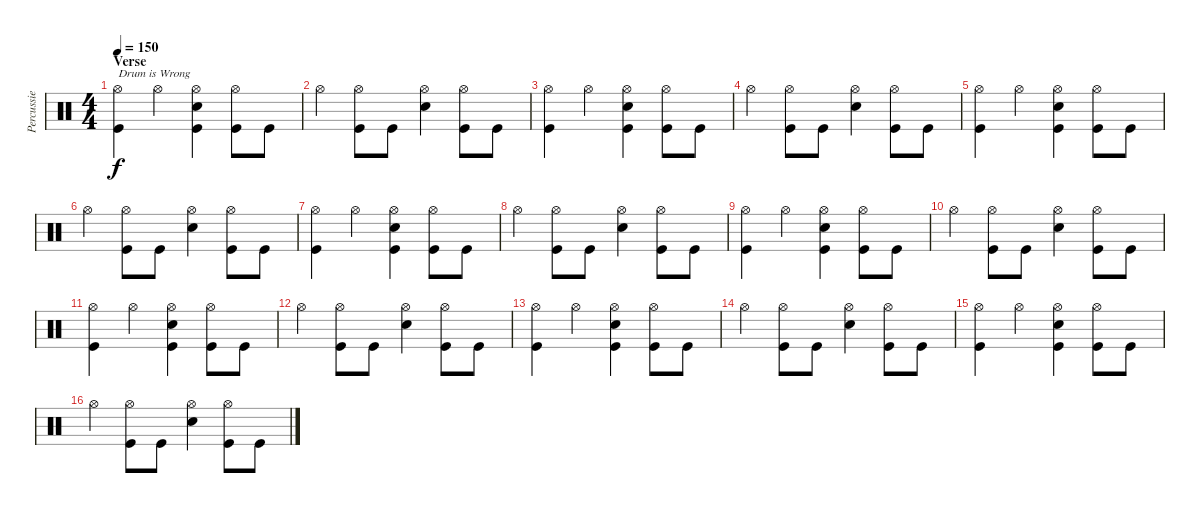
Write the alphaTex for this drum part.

\track ("Percussie" "Percussie") {instrument percussion}
\staff {score}
\articulation defaults
\ts (4 4)
\section ("" "Verse")
\tempo 150
\clef neutral
\ks c
("Hi-Hat (open)" "Kick (hit)").4{txt "Drum is Wrong" dy f} "Hi-Hat (open)".4 ("Hi-Hat (open)" "Snare (hit) 2" "Kick (hit)").4 ("Hi-Hat (open)" "Kick (hit)").8 "Kick (hit)".8 |
"Hi-Hat (open)".4 ("Hi-Hat (open)" "Kick (hit)").8 "Kick (hit)".8 ("Hi-Hat (open)" "Snare (hit) 2").4 ("Hi-Hat (open)" "Kick (hit)").8 "Kick (hit)".8 |
("Hi-Hat (open)" "Kick (hit)").4 "Hi-Hat (open)".4 ("Hi-Hat (open)" "Snare (hit) 2" "Kick (hit)").4 ("Hi-Hat (open)" "Kick (hit)").8 "Kick (hit)".8 |
"Hi-Hat (open)".4 ("Hi-Hat (open)" "Kick (hit)").8 "Kick (hit)".8 ("Hi-Hat (open)" "Snare (hit) 2").4 ("Hi-Hat (open)" "Kick (hit)").8 "Kick (hit)".8 |
("Hi-Hat (open)" "Kick (hit)").4 "Hi-Hat (open)".4 ("Hi-Hat (open)" "Snare (hit) 2" "Kick (hit)").4 ("Hi-Hat (open)" "Kick (hit)").8 "Kick (hit)".8 |
"Hi-Hat (open)".4 ("Hi-Hat (open)" "Kick (hit)").8 "Kick (hit)".8 ("Hi-Hat (open)" "Snare (hit) 2").4 ("Hi-Hat (open)" "Kick (hit)").8 "Kick (hit)".8 |
("Hi-Hat (open)" "Kick (hit)").4 "Hi-Hat (open)".4 ("Hi-Hat (open)" "Snare (hit) 2" "Kick (hit)").4 ("Hi-Hat (open)" "Kick (hit)").8 "Kick (hit)".8 |
"Hi-Hat (open)".4 ("Hi-Hat (open)" "Kick (hit)").8 "Kick (hit)".8 ("Hi-Hat (open)" "Snare (hit) 2").4 ("Hi-Hat (open)" "Kick (hit)").8 "Kick (hit)".8 |
("Hi-Hat (open)" "Kick (hit)").4 "Hi-Hat (open)".4 ("Hi-Hat (open)" "Snare (hit) 2" "Kick (hit)").4 ("Hi-Hat (open)" "Kick (hit)").8 "Kick (hit)".8 |
"Hi-Hat (open)".4 ("Hi-Hat (open)" "Kick (hit)").8 "Kick (hit)".8 ("Hi-Hat (open)" "Snare (hit) 2").4 ("Hi-Hat (open)" "Kick (hit)").8 "Kick (hit)".8 |
("Hi-Hat (open)" "Kick (hit)").4 "Hi-Hat (open)".4 ("Hi-Hat (open)" "Snare (hit) 2" "Kick (hit)").4 ("Hi-Hat (open)" "Kick (hit)").8 "Kick (hit)".8 |
"Hi-Hat (open)".4 ("Hi-Hat (open)" "Kick (hit)").8 "Kick (hit)".8 ("Hi-Hat (open)" "Snare (hit) 2").4 ("Hi-Hat (open)" "Kick (hit)").8 "Kick (hit)".8 |
("Hi-Hat (open)" "Kick (hit)").4 "Hi-Hat (open)".4 ("Hi-Hat (open)" "Snare (hit) 2" "Kick (hit)").4 ("Hi-Hat (open)" "Kick (hit)").8 "Kick (hit)".8 |
"Hi-Hat (open)".4 ("Hi-Hat (open)" "Kick (hit)").8 "Kick (hit)".8 ("Hi-Hat (open)" "Snare (hit) 2").4 ("Hi-Hat (open)" "Kick (hit)").8 "Kick (hit)".8 |
("Hi-Hat (open)" "Kick (hit)").4 "Hi-Hat (open)".4 ("Hi-Hat (open)" "Snare (hit) 2" "Kick (hit)").4 ("Hi-Hat (open)" "Kick (hit)").8 "Kick (hit)".8 |
"Hi-Hat (open)".4 ("Hi-Hat (open)" "Kick (hit)").8 "Kick (hit)".8 ("Hi-Hat (open)" "Snare (hit) 2").4 ("Hi-Hat (open)" "Kick (hit)").8 "Kick (hit)".8
